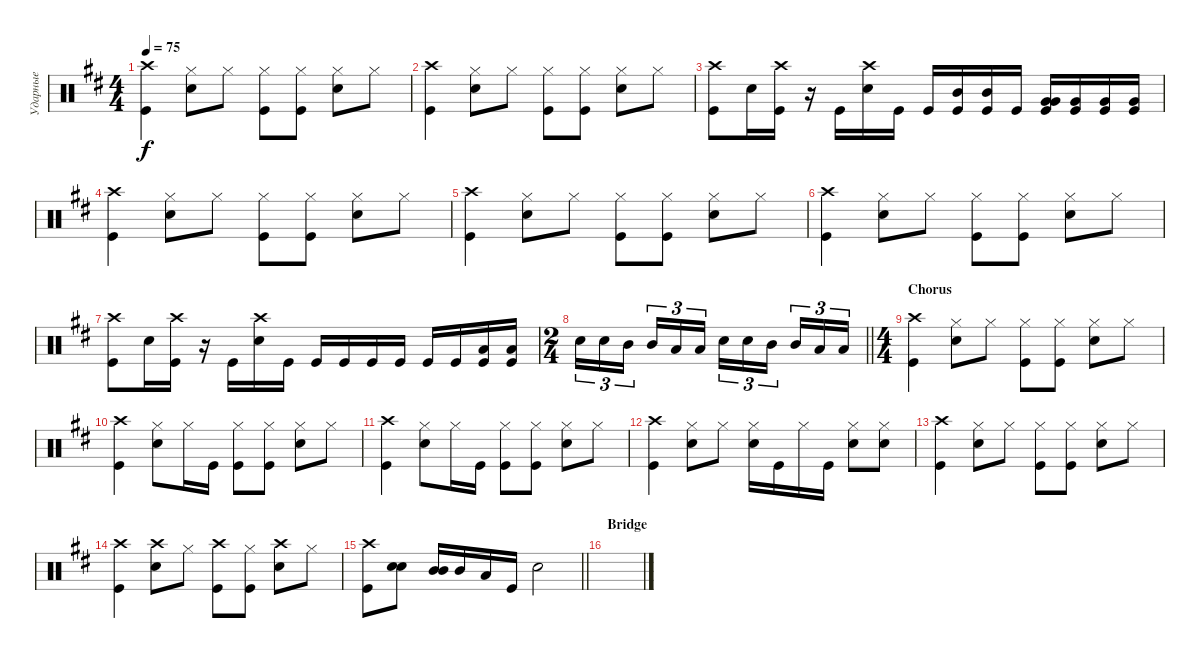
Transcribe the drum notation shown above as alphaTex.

\track ("Ударные" "Ударные") {instrument percussion}
\staff {score}
\articulation defaults
\ts (4 4)
\tempo 75
\clef neutral
\ks bminor
("Kick (hit)" "Crash high (hit)").4{dy f} ("Hi-Hat (closed)" "Snare (hit) 2").8 "Hi-Hat (closed)".8 ("Hi-Hat (closed)" "Kick (hit)").8 ("Hi-Hat (closed)" "Kick (hit)").8 ("Hi-Hat (closed)" "Snare (hit) 2").8 "Hi-Hat (closed)".8 |
("Kick (hit)" "Crash high (hit)").4 ("Hi-Hat (closed)" "Snare (hit) 2").8 "Hi-Hat (closed)".8 ("Hi-Hat (closed)" "Kick (hit)").8 ("Hi-Hat (closed)" "Kick (hit)").8 ("Hi-Hat (closed)" "Snare (hit) 2").8 "Hi-Hat (closed)".8 |
("Kick (hit)" "Crash high (hit)").8 "Snare (hit) 2".16 ("Kick (hit)" "Crash high (hit)").16 r.16 "Kick (hit)".16 ("Crash high (hit)" "Snare (hit) 2").16 "Kick (hit)".16 "Kick (hit)".16 ("Mid Tom (hit)" "Kick (hit)").16 ("Mid Tom (hit)" "Kick (hit)").16 "Kick (hit)".16 ("Very Low Tom (hit)" "Very Low Tom (hit)" "Kick (hit)").16{bd 120} ("Kick (hit)" "Very Low Tom (hit)").16 ("Very Low Tom (hit)" "Kick (hit)").16 ("Very Low Tom (hit)" "Kick (hit)").16 |
("Kick (hit)" "Crash high (hit)").4 ("Hi-Hat (closed)" "Snare (hit) 2").8 "Hi-Hat (closed)".8 ("Hi-Hat (closed)" "Kick (hit)").8 ("Hi-Hat (closed)" "Kick (hit)").8 ("Hi-Hat (closed)" "Snare (hit) 2").8 "Hi-Hat (closed)".8 |
("Kick (hit)" "Crash high (hit)").4 ("Hi-Hat (closed)" "Snare (hit) 2").8 "Hi-Hat (closed)".8 ("Hi-Hat (closed)" "Kick (hit)").8 ("Hi-Hat (closed)" "Kick (hit)").8 ("Hi-Hat (closed)" "Snare (hit) 2").8 "Hi-Hat (closed)".8 |
("Kick (hit)" "Crash high (hit)").4 ("Hi-Hat (closed)" "Snare (hit) 2").8 "Hi-Hat (closed)".8 ("Hi-Hat (closed)" "Kick (hit)").8 ("Hi-Hat (closed)" "Kick (hit)").8 ("Hi-Hat (closed)" "Snare (hit) 2").8 "Hi-Hat (closed)".8 |
("Kick (hit)" "Crash high (hit)").8 "Snare (hit) 2".16 ("Kick (hit)" "Crash high (hit)").16 r.16 "Kick (hit)".16 ("Crash high (hit)" "Snare (hit) 2").16 "Kick (hit)".16 "Kick (hit)".16 "Kick (hit)".16 "Kick (hit)".16 "Kick (hit)".16 "Kick (hit)".16{bd 120} "Kick (hit)".16 ("Low Tom (hit)" "Kick (hit)").16 ("Low Tom (hit)" "Kick (hit)").16 |
\ts (2 4)
\barLineRight lightlight "Snare (hit) 2".16{tu (3 2)} "Snare (hit) 2".16{tu (3 2)} "Mid Tom (hit)".16{tu (3 2) beam splitsecondary} "Mid Tom (hit)".16{tu (3 2)} "Low Tom (hit)".16{tu (3 2)} "Low Tom (hit)".16{tu (3 2)} "Snare (hit) 2".16{tu (3 2)} "Snare (hit) 2".16{tu (3 2)} "Mid Tom (hit)".16{tu (3 2) beam splitsecondary} "Mid Tom (hit)".16{tu (3 2)} "Low Tom (hit)".16{tu (3 2)} "Low Tom (hit)".16{tu (3 2)}
|
\ts (4 4)
\section ("" "Chorus")
("Kick (hit)" "Crash high (hit)").4 ("Hi-Hat (closed)" "Snare (hit) 2").8 "Hi-Hat (closed)".8 ("Hi-Hat (closed)" "Kick (hit)").8 ("Hi-Hat (closed)" "Kick (hit)").8 ("Hi-Hat (closed)" "Snare (hit) 2").8 "Hi-Hat (closed)".8 |
("Kick (hit)" "Crash high (hit)").4 ("Hi-Hat (closed)" "Snare (hit) 2").8 "Hi-Hat (closed)".16 "Kick (hit)".16 ("Hi-Hat (closed)" "Kick (hit)").8 ("Hi-Hat (closed)" "Kick (hit)").8 ("Hi-Hat (closed)" "Snare (hit) 2").8 "Hi-Hat (closed)".8 |
("Kick (hit)" "Crash high (hit)").4 ("Hi-Hat (closed)" "Snare (hit) 2").8 "Hi-Hat (closed)".16 "Kick (hit)".16 ("Hi-Hat (closed)" "Kick (hit)").8 ("Hi-Hat (closed)" "Kick (hit)").8 ("Hi-Hat (closed)" "Snare (hit) 2").8 "Hi-Hat (closed)".8 |
("Kick (hit)" "Crash high (hit)").4 ("Hi-Hat (closed)" "Snare (hit) 2").8 "Hi-Hat (closed)".8 ("Hi-Hat (closed)" "Snare (hit) 2").16 "Kick (hit)".16 "Hi-Hat (closed)".16 "Kick (hit)".16 ("Hi-Hat (closed)" "Snare (hit) 2").8 ("Hi-Hat (closed)" "Snare (hit) 2").8 |
("Kick (hit)" "Crash high (hit)").4 ("Hi-Hat (closed)" "Snare (hit) 2").8 "Hi-Hat (closed)".8 ("Hi-Hat (closed)" "Kick (hit)").8 ("Hi-Hat (closed)" "Kick (hit)").8 ("Hi-Hat (closed)" "Snare (hit) 2").8 "Hi-Hat (closed)".8 |
("Kick (hit)" "Crash high (hit)").4 ("Snare (hit) 2" "Crash high (hit)").8 "Hi-Hat (closed)".8 ("Kick (hit)" "Crash high (hit)").8 ("Hi-Hat (closed)" "Kick (hit)").8 ("Snare (hit) 2" "Crash high (hit)").8 "Hi-Hat (closed)".8 |
\barLineRight lightlight
("Kick (hit)" "Crash high (hit)").8 ("Snare (hit) 2" "Snare (hit) 2").8{bd 240} ("Mid Tom (hit)" "Mid Tom (hit)").16{bd 120} "Mid Tom (hit)".16 "Low Tom (hit)".16 "Kick (hit)".16 "Snare (hit) 2".2 |
\section ("" "Bridge")
